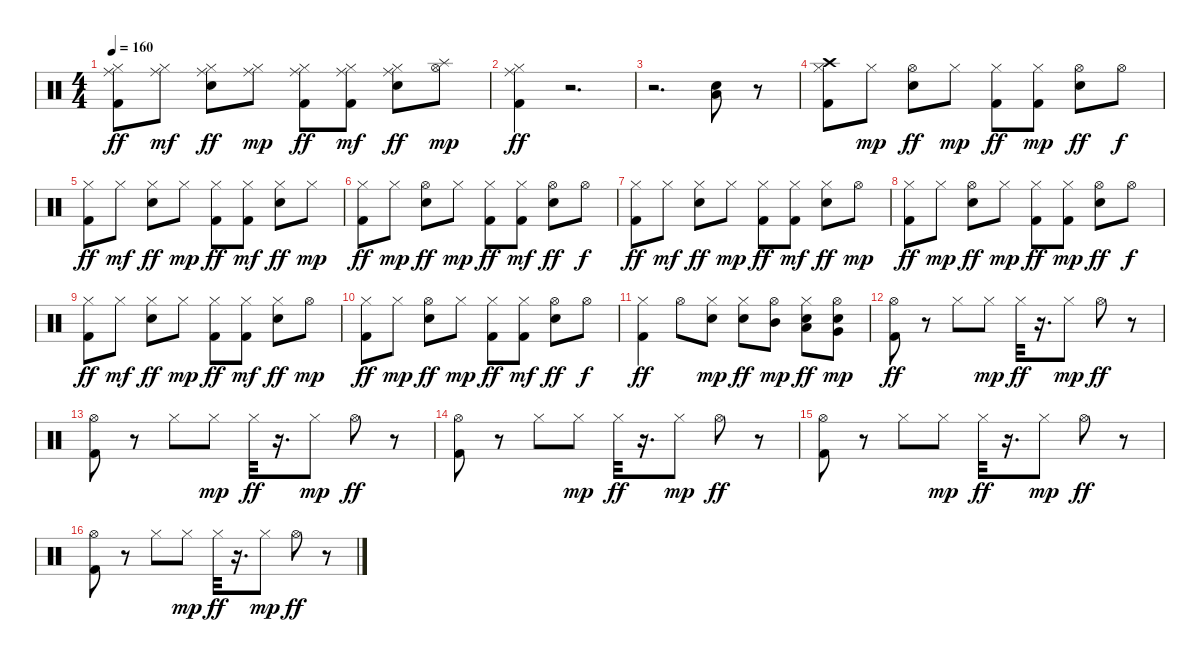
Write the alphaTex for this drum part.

\track "" {instrument percussion}
\staff {score}
\articulation defaults
\ts (4 4)
\tempo 160
\clef neutral
\ks c
("Ride (middle)" "Hi-Hat (closed)" "Kick (hit) 2").8{dy ff} ("Ride (middle)" "Hi-Hat (closed)").8{dy mf} ("Snare (hit) 2" "Hi-Hat (closed)" "Ride (middle)").8{dy ff} ("Hi-Hat (closed)" "Ride (middle)").8{dy mp} ("Hi-Hat (closed)" "Ride (middle)" "Kick (hit) 2").8{dy ff} ("Ride (middle)" "Hi-Hat (closed)" "Kick (hit) 2").8{dy mf} ("Hi-Hat (closed)" "Snare (hit) 2" "Ride (middle)").8{dy ff} ("Hi-Hat (open)" "Splash (hit)").8{dy mp} |
("Hi-Hat (closed)" "Ride (middle)" "Kick (hit) 2").4{dy ff} r.2{d} |
r.2{d} ("Low Tom (hit)" "Snare (hit) 2").8 r.8 |
("Hi-Hat (closed)" "Crash high (hit)" "Kick (hit) 2").8 "Hi-Hat (closed)".8{dy mp} ("Hi-Hat (open)" "Snare (hit) 2").8{dy ff} "Hi-Hat (closed)".8{dy mp} ("Hi-Hat (closed)" "Kick (hit) 2").8{dy ff} ("Kick (hit) 2" "Hi-Hat (closed)").8{dy mp} ("Snare (hit) 2" "Hi-Hat (open)").8{dy ff} "Hi-Hat (open)".8{dy f} |
("Hi-Hat (closed)" "Kick (hit) 2").8{dy ff} "Hi-Hat (closed)".8{dy mf} ("Snare (hit) 2" "Hi-Hat (closed)").8{dy ff} "Hi-Hat (closed)".8{dy mp} ("Hi-Hat (closed)" "Kick (hit) 2").8{dy ff} ("Hi-Hat (closed)" "Kick (hit) 2").8{dy mf} ("Snare (hit) 2" "Hi-Hat (closed)").8{dy ff} "Hi-Hat (closed)".8{dy mp} |
("Hi-Hat (closed)" "Kick (hit) 2").8{dy ff} "Hi-Hat (closed)".8{dy mp} ("Snare (hit) 2" "Hi-Hat (open)").8{dy ff} "Hi-Hat (closed)".8{dy mp} ("Kick (hit) 2" "Hi-Hat (closed)").8{dy ff} ("Hi-Hat (closed)" "Kick (hit) 2").8{dy mf} ("Snare (hit) 2" "Hi-Hat (open)").8{dy ff} "Hi-Hat (open)".8{dy f} |
("Hi-Hat (closed)" "Kick (hit) 2").8{dy ff} "Hi-Hat (closed)".8{dy mf} ("Snare (hit) 2" "Hi-Hat (closed)").8{dy ff} "Hi-Hat (closed)".8{dy mp} ("Hi-Hat (closed)" "Kick (hit) 2").8{dy ff} ("Hi-Hat (closed)" "Kick (hit) 2").8{dy mf} ("Snare (hit) 2" "Hi-Hat (closed)").8{dy ff} "Hi-Hat (open)".8{dy mp} |
("Hi-Hat (closed)" "Kick (hit) 2").8{dy ff} "Hi-Hat (closed)".8{dy mp} ("Hi-Hat (open)" "Snare (hit) 2").8{dy ff} "Hi-Hat (closed)".8{dy mp} ("Kick (hit) 2" "Hi-Hat (closed)").8{dy ff} ("Kick (hit) 2" "Hi-Hat (closed)").8{dy mp} ("Hi-Hat (open)" "Snare (hit) 2").8{dy ff} "Hi-Hat (open)".8{dy f} |
("Hi-Hat (closed)" "Kick (hit) 2").8{dy ff} "Hi-Hat (closed)".8{dy mf} ("Snare (hit) 2" "Hi-Hat (closed)").8{dy ff} "Hi-Hat (closed)".8{dy mp} ("Hi-Hat (closed)" "Kick (hit) 2").8{dy ff} ("Hi-Hat (closed)" "Kick (hit) 2").8{dy mf} ("Snare (hit) 2" "Hi-Hat (closed)").8{dy ff} "Hi-Hat (open)".8{dy mp} |
("Hi-Hat (closed)" "Kick (hit) 2").8{dy ff} "Hi-Hat (closed)".8{dy mp} ("Snare (hit) 2" "Hi-Hat (open)").8{dy ff} "Hi-Hat (closed)".8{dy mp} ("Hi-Hat (closed)" "Kick (hit) 2").8{dy ff} ("Hi-Hat (closed)" "Kick (hit) 2").8{dy mf} ("Snare (hit) 2" "Hi-Hat (open)").8{dy ff} "Hi-Hat (open)".8{dy f} |
("Hi-Hat (closed)" "Kick (hit) 2").4{dy ff} "Hi-Hat (open)".8 ("Snare (hit) 2" "Hi-Hat (closed)").8{dy mp} ("Hi-Hat (closed)" "Snare (hit) 2").8{dy ff} ("Hi-Hat (open)" "Mid Tom (hit)").8{dy mp} ("Low Tom (hit)" "Hi-Hat (closed)" "Snare (hit) 2").8{dy ff} ("Snare (hit) 2" "Hi-Hat (open)" "Very Low Tom (hit)").8{dy mp} |
("Hi-Hat (open)" "Kick (hit) 2").8{dy ff} r.8 "Hi-Hat (closed)".8 "Hi-Hat (closed)".8{dy mp} "Hi-Hat (closed)".32{dy ff} r.16{d} "Hi-Hat (closed)".8{dy mp} "Hi-Hat (open)".8{dy ff} r.8 |
("Hi-Hat (open)" "Kick (hit) 2").8 r.8 "Hi-Hat (closed)".8 "Hi-Hat (closed)".8{dy mp} "Hi-Hat (closed)".32{dy ff} r.16{d} "Hi-Hat (closed)".8{dy mp} "Hi-Hat (open)".8{dy ff} r.8 |
("Hi-Hat (open)" "Kick (hit) 2").8 r.8 "Hi-Hat (closed)".8 "Hi-Hat (closed)".8{dy mp} "Hi-Hat (closed)".32{dy ff} r.16{d} "Hi-Hat (closed)".8{dy mp} "Hi-Hat (open)".8{dy ff} r.8 |
("Hi-Hat (open)" "Kick (hit) 2").8 r.8 "Hi-Hat (closed)".8 "Hi-Hat (closed)".8{dy mp} "Hi-Hat (closed)".32{dy ff} r.16{d} "Hi-Hat (closed)".8{dy mp} "Hi-Hat (open)".8{dy ff} r.8 |
("Hi-Hat (open)" "Kick (hit) 2").8 r.8 "Hi-Hat (closed)".8 "Hi-Hat (closed)".8{dy mp} "Hi-Hat (closed)".32{dy ff} r.16{d} "Hi-Hat (closed)".8{dy mp} "Hi-Hat (open)".8{dy ff} r.8
